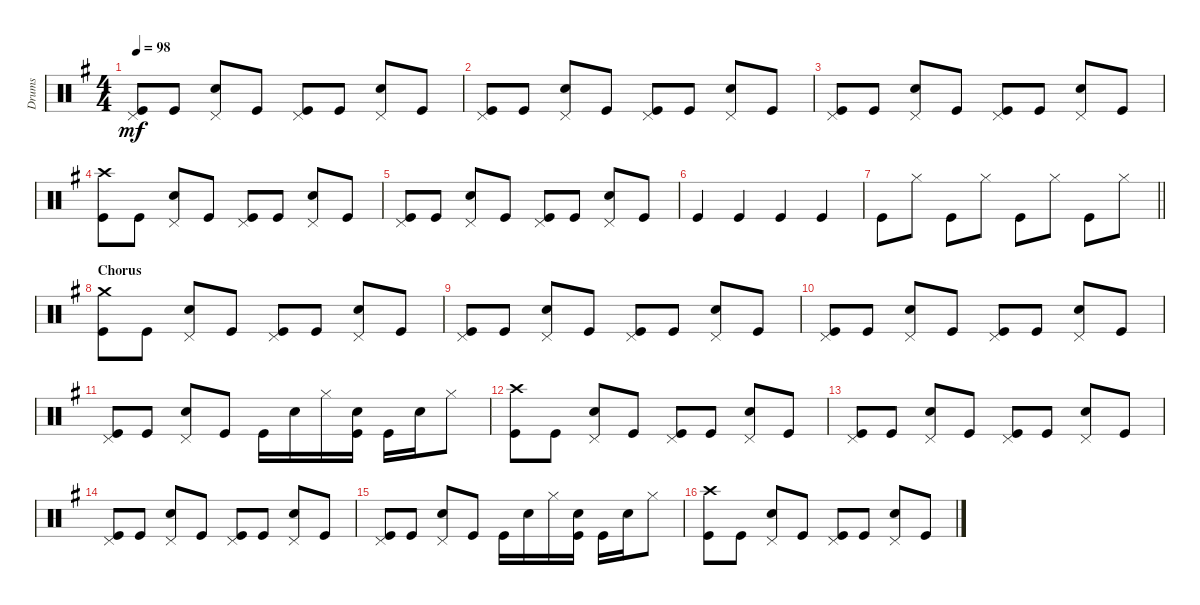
\track ("Drums" "Drums") {instrument percussion}
\staff {score}
\articulation defaults
\ts (4 4)
\tempo 98
\clef neutral
\ks g
("Kick (hit)" "Pedal Hi-Hat (hit)").8{dy mf} "Kick (hit)".8 ("Snare (hit) 2" "Pedal Hi-Hat (hit)").8 "Kick (hit)".8 ("Kick (hit)" "Pedal Hi-Hat (hit)").8 "Kick (hit)".8 ("Snare (hit) 2" "Pedal Hi-Hat (hit)").8 "Kick (hit)".8 |
("Kick (hit)" "Pedal Hi-Hat (hit)").8 "Kick (hit)".8 ("Snare (hit) 2" "Pedal Hi-Hat (hit)").8 "Kick (hit)".8 ("Kick (hit)" "Pedal Hi-Hat (hit)").8 "Kick (hit)".8 ("Snare (hit) 2" "Pedal Hi-Hat (hit)").8 "Kick (hit)".8 |
("Kick (hit)" "Pedal Hi-Hat (hit)").8 "Kick (hit)".8 ("Snare (hit) 2" "Pedal Hi-Hat (hit)").8 "Kick (hit)".8 ("Kick (hit)" "Pedal Hi-Hat (hit)").8 "Kick (hit)".8 ("Snare (hit) 2" "Pedal Hi-Hat (hit)").8 "Kick (hit)".8 |
("Kick (hit)" "Crash high (hit)").8 "Kick (hit)".8 ("Snare (hit) 2" "Pedal Hi-Hat (hit)").8 "Kick (hit)".8 ("Kick (hit)" "Pedal Hi-Hat (hit)").8 "Kick (hit)".8 ("Snare (hit) 2" "Pedal Hi-Hat (hit)").8 "Kick (hit)".8 |
("Kick (hit)" "Pedal Hi-Hat (hit)").8 "Kick (hit)".8 ("Snare (hit) 2" "Pedal Hi-Hat (hit)").8 "Kick (hit)".8 ("Kick (hit)" "Pedal Hi-Hat (hit)").8 "Kick (hit)".8 ("Snare (hit) 2" "Pedal Hi-Hat (hit)").8 "Kick (hit)".8 |
"Kick (hit)".4 "Kick (hit)".4 "Kick (hit)".4 "Kick (hit)".4 |
\barLineRight lightlight "Kick (hit)".8 "Hi-Hat (closed)".8 "Kick (hit)".8 "Hi-Hat (closed)".8 "Kick (hit)".8 "Hi-Hat (closed)".8 "Kick (hit)".8 "Hi-Hat (closed)".8
|
\section ("" "Chorus")
("Kick (hit)" "Crash medium (hit)").8 "Kick (hit)".8 ("Snare (hit) 2" "Pedal Hi-Hat (hit)").8 "Kick (hit)".8 ("Kick (hit)" "Pedal Hi-Hat (hit)").8 "Kick (hit)".8 ("Snare (hit) 2" "Pedal Hi-Hat (hit)").8 "Kick (hit)".8 |
("Kick (hit)" "Pedal Hi-Hat (hit)").8 "Kick (hit)".8 ("Snare (hit) 2" "Pedal Hi-Hat (hit)").8 "Kick (hit)".8 ("Kick (hit)" "Pedal Hi-Hat (hit)").8 "Kick (hit)".8 ("Snare (hit) 2" "Pedal Hi-Hat (hit)").8 "Kick (hit)".8 |
("Kick (hit)" "Pedal Hi-Hat (hit)").8 "Kick (hit)".8 ("Snare (hit) 2" "Pedal Hi-Hat (hit)").8 "Kick (hit)".8 ("Kick (hit)" "Pedal Hi-Hat (hit)").8 "Kick (hit)".8 ("Snare (hit) 2" "Pedal Hi-Hat (hit)").8 "Kick (hit)".8 |
("Kick (hit)" "Pedal Hi-Hat (hit)").8 "Kick (hit)".8 ("Snare (hit) 2" "Pedal Hi-Hat (hit)").8 "Kick (hit)".8 "Kick (hit)".16 "Snare (hit) 2".16 "Hi-Hat (closed)".16 ("Kick (hit)" "Snare (hit) 2").16 "Kick (hit)".16 "Snare (hit) 2".16 "Hi-Hat (closed)".8 |
("Kick (hit)" "Crash high (hit)").8 "Kick (hit)".8 ("Snare (hit) 2" "Pedal Hi-Hat (hit)").8 "Kick (hit)".8 ("Kick (hit)" "Pedal Hi-Hat (hit)").8 "Kick (hit)".8 ("Snare (hit) 2" "Pedal Hi-Hat (hit)").8 "Kick (hit)".8 |
("Kick (hit)" "Pedal Hi-Hat (hit)").8 "Kick (hit)".8 ("Snare (hit) 2" "Pedal Hi-Hat (hit)").8 "Kick (hit)".8 ("Kick (hit)" "Pedal Hi-Hat (hit)").8 "Kick (hit)".8 ("Snare (hit) 2" "Pedal Hi-Hat (hit)").8 "Kick (hit)".8 |
("Kick (hit)" "Pedal Hi-Hat (hit)").8 "Kick (hit)".8 ("Snare (hit) 2" "Pedal Hi-Hat (hit)").8 "Kick (hit)".8 ("Kick (hit)" "Pedal Hi-Hat (hit)").8 "Kick (hit)".8 ("Snare (hit) 2" "Pedal Hi-Hat (hit)").8 "Kick (hit)".8 |
("Kick (hit)" "Pedal Hi-Hat (hit)").8 "Kick (hit)".8 ("Snare (hit) 2" "Pedal Hi-Hat (hit)").8 "Kick (hit)".8 "Kick (hit)".16 "Snare (hit) 2".16 "Hi-Hat (closed)".16 ("Kick (hit)" "Snare (hit) 2").16 "Kick (hit)".16 "Snare (hit) 2".16 "Hi-Hat (closed)".8 |
("Kick (hit)" "Crash high (hit)").8 "Kick (hit)".8 ("Snare (hit) 2" "Pedal Hi-Hat (hit)").8 "Kick (hit)".8 ("Kick (hit)" "Pedal Hi-Hat (hit)").8 "Kick (hit)".8 ("Snare (hit) 2" "Pedal Hi-Hat (hit)").8 "Kick (hit)".8
